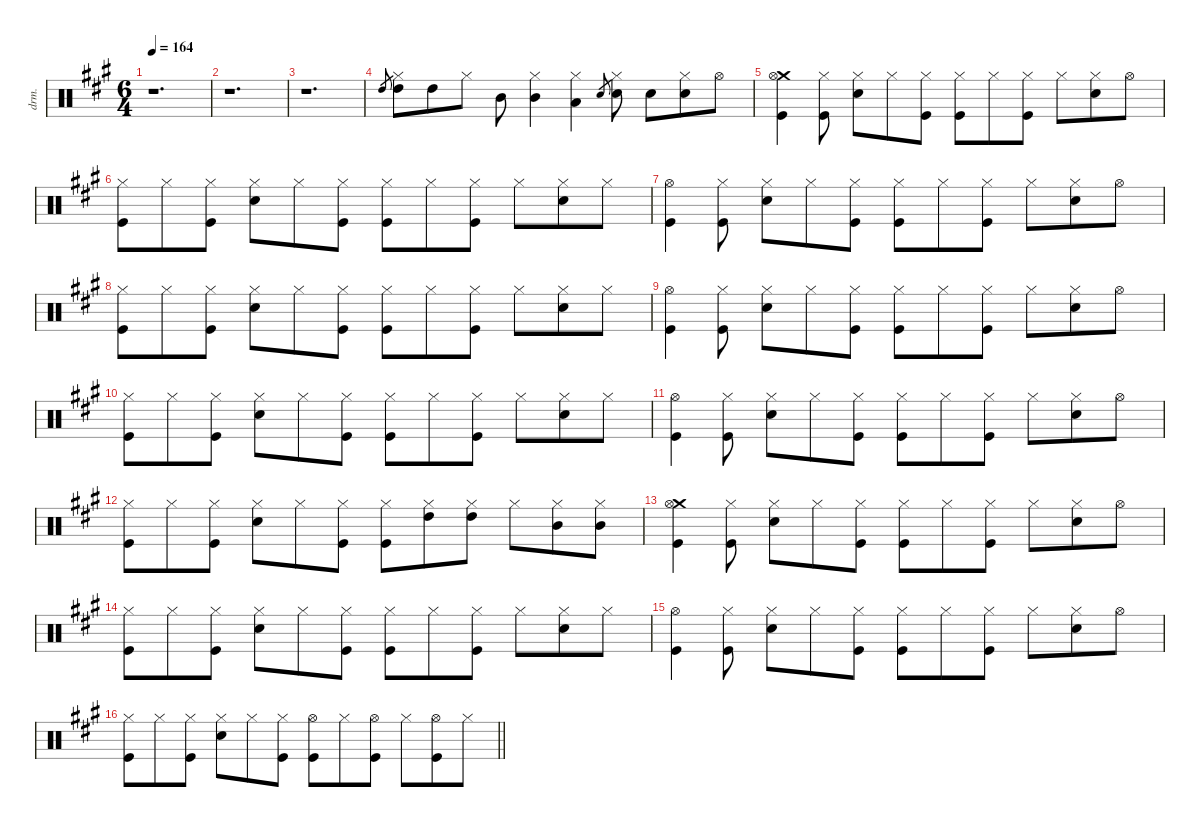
\defaultSystemsLayout 4
\hideDynamics
\bracketExtendMode groupsimilarinstruments
\otherSystemsTrackNameOrientation horizontal
\track ("Drums" "drm.") {defaultSystemsLayout 4 instrument percussion}
\staff {score}
\articulation defaults
\ts (6 4)
\beaming (8 3 3 3 3)
\tempo 164
\clef neutral
\ks f#minor
r.1{d dy f beam Down} |
r.1{d beam Down} |
r.1{d beam Down} |
"High Tom (hit)"{acc forcenatural}.8{gr beam Up} ("Hi-Hat (closed)"{acc forcenatural} "High Tom (hit)"{acc forcenatural}).8{dy p beam Down} "High Tom (hit)"{acc forcenatural}.8{dy f beam Down} "Hi-Hat (closed)"{acc forcenatural}.8{dy p beam Down} "Mid Tom (hit)"{acc forcenatural}.8{dy f beam Down} ("Hi-Hat (closed)"{acc forcenatural} "Mid Tom (hit)"{acc forcenatural}).4{dy p beam Down} ("Hi-Hat (closed)"{acc forcenatural} "Low Tom (hit)"{acc forcenatural}).4{beam Down} "Electric Snare (hit)"{acc forcenatural}.8{gr dy pp beam Up} ("Hi-Hat (closed)"{acc forcenatural} "Snare (hit) 2"{acc forcenatural}).8{dy p beam Down} "Snare (hit) 2"{acc forcenatural}.8{dy f beam Down} ("Hi-Hat (closed)"{acc forcenatural} "Snare (hit) 2"{acc forcenatural}).8{dy p beam Down} "Hi-Hat (open)"{acc forcenatural}.8{dy f beam Down} |
("Crash medium (hit)"{acc forcenatural} "Hi-Hat (open)"{acc forcenatural} "Kick (hit)"{acc forcenatural}).4{beam Down} ("Hi-Hat (closed)"{acc forcenatural} "Kick (hit)"{acc forcenatural}).8{beam Down} ("Hi-Hat (closed)"{acc forcenatural} "Snare (hit) 2"{acc forcenatural}).8{beam Down} "Hi-Hat (closed)"{acc forcenatural}.8{beam Down} ("Hi-Hat (closed)"{acc forcenatural} "Kick (hit)"{acc forcenatural}).8{beam Down} ("Hi-Hat (closed)"{acc forcenatural} "Kick (hit)"{acc forcenatural}).8{beam Down} "Hi-Hat (closed)"{acc forcenatural}.8{beam Down} ("Hi-Hat (closed)"{acc forcenatural} "Kick (hit)"{acc forcenatural}).8{beam Down} "Hi-Hat (closed)"{acc forcenatural}.8{beam Down} ("Hi-Hat (closed)"{acc forcenatural} "Snare (hit) 2"{acc forcenatural}).8{beam Down} "Hi-Hat (open)"{acc forcenatural}.8{beam Down} |
("Hi-Hat (closed)"{acc forcenatural} "Kick (hit)"{acc forcenatural}).8{beam Down} "Hi-Hat (closed)"{acc forcenatural}.8{beam Down} ("Hi-Hat (closed)"{acc forcenatural} "Kick (hit)"{acc forcenatural}).8{beam Down} ("Hi-Hat (closed)"{acc forcenatural} "Snare (hit) 2"{acc forcenatural}).8{beam Down} "Hi-Hat (closed)"{acc forcenatural}.8{beam Down} ("Hi-Hat (closed)"{acc forcenatural} "Kick (hit)"{acc forcenatural}).8{beam Down} ("Hi-Hat (closed)"{acc forcenatural} "Kick (hit)"{acc forcenatural}).8{beam Down} "Hi-Hat (closed)"{acc forcenatural}.8{beam Down} ("Hi-Hat (closed)"{acc forcenatural} "Kick (hit)"{acc forcenatural}).8{beam Down} "Hi-Hat (closed)"{acc forcenatural}.8{beam Down} ("Hi-Hat (closed)"{acc forcenatural} "Snare (hit) 2"{acc forcenatural}).8{beam Down} "Hi-Hat (closed)"{acc forcenatural}.8{beam Down} |
("Hi-Hat (open)"{acc forcenatural} "Kick (hit)"{acc forcenatural}).4{beam Down} ("Hi-Hat (closed)"{acc forcenatural} "Kick (hit)"{acc forcenatural}).8{beam Down} ("Hi-Hat (closed)"{acc forcenatural} "Snare (hit) 2"{acc forcenatural}).8{beam Down} "Hi-Hat (closed)"{acc forcenatural}.8{beam Down} ("Hi-Hat (closed)"{acc forcenatural} "Kick (hit)"{acc forcenatural}).8{beam Down} ("Hi-Hat (closed)"{acc forcenatural} "Kick (hit)"{acc forcenatural}).8{beam Down} "Hi-Hat (closed)"{acc forcenatural}.8{beam Down} ("Hi-Hat (closed)"{acc forcenatural} "Kick (hit)"{acc forcenatural}).8{beam Down} "Hi-Hat (closed)"{acc forcenatural}.8{beam Down} ("Hi-Hat (closed)"{acc forcenatural} "Snare (hit) 2"{acc forcenatural}).8{beam Down} "Hi-Hat (open)"{acc forcenatural}.8{beam Down} |
("Hi-Hat (closed)"{acc forcenatural} "Kick (hit)"{acc forcenatural}).8{beam Down} "Hi-Hat (closed)"{acc forcenatural}.8{beam Down} ("Hi-Hat (closed)"{acc forcenatural} "Kick (hit)"{acc forcenatural}).8{beam Down} ("Hi-Hat (closed)"{acc forcenatural} "Snare (hit) 2"{acc forcenatural}).8{beam Down} "Hi-Hat (closed)"{acc forcenatural}.8{beam Down} ("Hi-Hat (closed)"{acc forcenatural} "Kick (hit)"{acc forcenatural}).8{beam Down} ("Hi-Hat (closed)"{acc forcenatural} "Kick (hit)"{acc forcenatural}).8{beam Down} "Hi-Hat (closed)"{acc forcenatural}.8{beam Down} ("Hi-Hat (closed)"{acc forcenatural} "Kick (hit)"{acc forcenatural}).8{beam Down} "Hi-Hat (closed)"{acc forcenatural}.8{beam Down} ("Hi-Hat (closed)"{acc forcenatural} "Snare (hit) 2"{acc forcenatural}).8{beam Down} "Hi-Hat (closed)"{acc forcenatural}.8{beam Down} |
("Hi-Hat (open)"{acc forcenatural} "Kick (hit)"{acc forcenatural}).4{beam Down} ("Hi-Hat (closed)"{acc forcenatural} "Kick (hit)"{acc forcenatural}).8{beam Down} ("Hi-Hat (closed)"{acc forcenatural} "Snare (hit) 2"{acc forcenatural}).8{beam Down} "Hi-Hat (closed)"{acc forcenatural}.8{beam Down} ("Hi-Hat (closed)"{acc forcenatural} "Kick (hit)"{acc forcenatural}).8{beam Down} ("Hi-Hat (closed)"{acc forcenatural} "Kick (hit)"{acc forcenatural}).8{beam Down} "Hi-Hat (closed)"{acc forcenatural}.8{beam Down} ("Hi-Hat (closed)"{acc forcenatural} "Kick (hit)"{acc forcenatural}).8{beam Down} "Hi-Hat (closed)"{acc forcenatural}.8{beam Down} ("Hi-Hat (closed)"{acc forcenatural} "Snare (hit) 2"{acc forcenatural}).8{beam Down} "Hi-Hat (open)"{acc forcenatural}.8{beam Down} |
("Hi-Hat (closed)"{acc forcenatural} "Kick (hit)"{acc forcenatural}).8{beam Down} "Hi-Hat (closed)"{acc forcenatural}.8{beam Down} ("Hi-Hat (closed)"{acc forcenatural} "Kick (hit)"{acc forcenatural}).8{beam Down} ("Hi-Hat (closed)"{acc forcenatural} "Snare (hit) 2"{acc forcenatural}).8{beam Down} "Hi-Hat (closed)"{acc forcenatural}.8{beam Down} ("Hi-Hat (closed)"{acc forcenatural} "Kick (hit)"{acc forcenatural}).8{beam Down} ("Hi-Hat (closed)"{acc forcenatural} "Kick (hit)"{acc forcenatural}).8{beam Down} "Hi-Hat (closed)"{acc forcenatural}.8{beam Down} ("Hi-Hat (closed)"{acc forcenatural} "Kick (hit)"{acc forcenatural}).8{beam Down} "Hi-Hat (closed)"{acc forcenatural}.8{beam Down} ("Hi-Hat (closed)"{acc forcenatural} "Snare (hit) 2"{acc forcenatural}).8{beam Down} "Hi-Hat (closed)"{acc forcenatural}.8{beam Down} |
("Hi-Hat (open)"{acc forcenatural} "Kick (hit)"{acc forcenatural}).4{beam Down} ("Hi-Hat (closed)"{acc forcenatural} "Kick (hit)"{acc forcenatural}).8{beam Down} ("Hi-Hat (closed)"{acc forcenatural} "Snare (hit) 2"{acc forcenatural}).8{beam Down} "Hi-Hat (closed)"{acc forcenatural}.8{beam Down} ("Hi-Hat (closed)"{acc forcenatural} "Kick (hit)"{acc forcenatural}).8{beam Down} ("Hi-Hat (closed)"{acc forcenatural} "Kick (hit)"{acc forcenatural}).8{beam Down} "Hi-Hat (closed)"{acc forcenatural}.8{beam Down} ("Hi-Hat (closed)"{acc forcenatural} "Kick (hit)"{acc forcenatural}).8{beam Down} "Hi-Hat (closed)"{acc forcenatural}.8{beam Down} ("Hi-Hat (closed)"{acc forcenatural} "Snare (hit) 2"{acc forcenatural}).8{beam Down} "Hi-Hat (open)"{acc forcenatural}.8{beam Down} |
("Hi-Hat (closed)"{acc forcenatural} "Kick (hit)"{acc forcenatural}).8{beam Down} "Hi-Hat (closed)"{acc forcenatural}.8{beam Down} ("Hi-Hat (closed)"{acc forcenatural} "Kick (hit)"{acc forcenatural}).8{beam Down} ("Hi-Hat (closed)"{acc forcenatural} "Snare (hit) 2"{acc forcenatural}).8{beam Down} "Hi-Hat (closed)"{acc forcenatural}.8{beam Down} ("Hi-Hat (closed)"{acc forcenatural} "Kick (hit)"{acc forcenatural}).8{beam Down} ("Hi-Hat (closed)"{acc forcenatural} "Kick (hit)"{acc forcenatural}).8{beam Down} ("Hi-Hat (closed)"{acc forcenatural} "High Tom (hit)"{acc forcenatural}).8{beam Down} ("Hi-Hat (closed)"{acc forcenatural} "High Tom (hit)"{acc forcenatural}).8{beam Down} "Hi-Hat (closed)"{acc forcenatural}.8{beam Down} ("Hi-Hat (closed)"{acc forcenatural} "Mid Tom (hit)"{acc forcenatural}).8{beam Down} ("Hi-Hat (closed)"{acc forcenatural} "Mid Tom (hit)"{acc forcenatural}).8{beam Down} |
("Crash medium (hit)"{acc forcenatural} "Hi-Hat (open)"{acc forcenatural} "Kick (hit)"{acc forcenatural}).4{dy mf beam Down} ("Hi-Hat (closed)"{acc forcenatural} "Kick (hit)"{acc forcenatural}).8{dy f beam Down} ("Hi-Hat (closed)"{acc forcenatural} "Snare (hit) 2"{acc forcenatural}).8{beam Down} "Hi-Hat (closed)"{acc forcenatural}.8{beam Down} ("Hi-Hat (closed)"{acc forcenatural} "Kick (hit)"{acc forcenatural}).8{beam Down} ("Hi-Hat (closed)"{acc forcenatural} "Kick (hit)"{acc forcenatural}).8{beam Down} "Hi-Hat (closed)"{acc forcenatural}.8{beam Down} ("Hi-Hat (closed)"{acc forcenatural} "Kick (hit)"{acc forcenatural}).8{beam Down} "Hi-Hat (closed)"{acc forcenatural}.8{beam Down} ("Hi-Hat (closed)"{acc forcenatural} "Snare (hit) 2"{acc forcenatural}).8{beam Down} "Hi-Hat (open)"{acc forcenatural}.8{beam Down} |
("Hi-Hat (closed)"{acc forcenatural} "Kick (hit)"{acc forcenatural}).8{beam Down} "Hi-Hat (closed)"{acc forcenatural}.8{beam Down} ("Hi-Hat (closed)"{acc forcenatural} "Kick (hit)"{acc forcenatural}).8{beam Down} ("Hi-Hat (closed)"{acc forcenatural} "Snare (hit) 2"{acc forcenatural}).8{beam Down} "Hi-Hat (closed)"{acc forcenatural}.8{beam Down} ("Hi-Hat (closed)"{acc forcenatural} "Kick (hit)"{acc forcenatural}).8{beam Down} ("Hi-Hat (closed)"{acc forcenatural} "Kick (hit)"{acc forcenatural}).8{beam Down} "Hi-Hat (closed)"{acc forcenatural}.8{beam Down} ("Hi-Hat (closed)"{acc forcenatural} "Kick (hit)"{acc forcenatural}).8{beam Down} "Hi-Hat (closed)"{acc forcenatural}.8{beam Down} ("Hi-Hat (closed)"{acc forcenatural} "Snare (hit) 2"{acc forcenatural}).8{beam Down} "Hi-Hat (closed)"{acc forcenatural}.8{beam Down} |
("Hi-Hat (open)"{acc forcenatural} "Kick (hit)"{acc forcenatural}).4{beam Down} ("Hi-Hat (closed)"{acc forcenatural} "Kick (hit)"{acc forcenatural}).8{beam Down} ("Hi-Hat (closed)"{acc forcenatural} "Snare (hit) 2"{acc forcenatural}).8{beam Down} "Hi-Hat (closed)"{acc forcenatural}.8{beam Down} ("Hi-Hat (closed)"{acc forcenatural} "Kick (hit)"{acc forcenatural}).8{beam Down} ("Hi-Hat (closed)"{acc forcenatural} "Kick (hit)"{acc forcenatural}).8{beam Down} "Hi-Hat (closed)"{acc forcenatural}.8{beam Down} ("Hi-Hat (closed)"{acc forcenatural} "Kick (hit)"{acc forcenatural}).8{beam Down} "Hi-Hat (closed)"{acc forcenatural}.8{beam Down} ("Hi-Hat (closed)"{acc forcenatural} "Snare (hit) 2"{acc forcenatural}).8{beam Down} "Hi-Hat (open)"{acc forcenatural}.8{beam Down} |
\barLineRight lightlight
("Hi-Hat (closed)"{acc forcenatural} "Kick (hit)"{acc forcenatural}).8{beam Down} "Hi-Hat (closed)"{acc forcenatural}.8{beam Down} ("Hi-Hat (closed)"{acc forcenatural} "Kick (hit)"{acc forcenatural}).8{beam Down} ("Hi-Hat (closed)"{acc forcenatural} "Snare (hit) 2"{acc forcenatural}).8{beam Down} "Hi-Hat (closed)"{acc forcenatural}.8{beam Down} ("Hi-Hat (closed)"{acc forcenatural} "Kick (hit)"{acc forcenatural}).8{beam Down} ("Hi-Hat (open)"{acc forcenatural} "Kick (hit)"{acc forcenatural}).8{beam Down} "Hi-Hat (closed)"{acc forcenatural}.8{dy mf beam Down} ("Hi-Hat (open)"{acc forcenatural} "Kick (hit)"{acc forcenatural}).8{dy f beam Down} "Hi-Hat (closed)"{acc forcenatural}.8{dy mf beam Down} ("Hi-Hat (open)"{acc forcenatural} "Kick (hit)"{acc forcenatural}).8{dy f beam Down} "Hi-Hat (closed)"{acc forcenatural}.8{dy mf beam Down}
